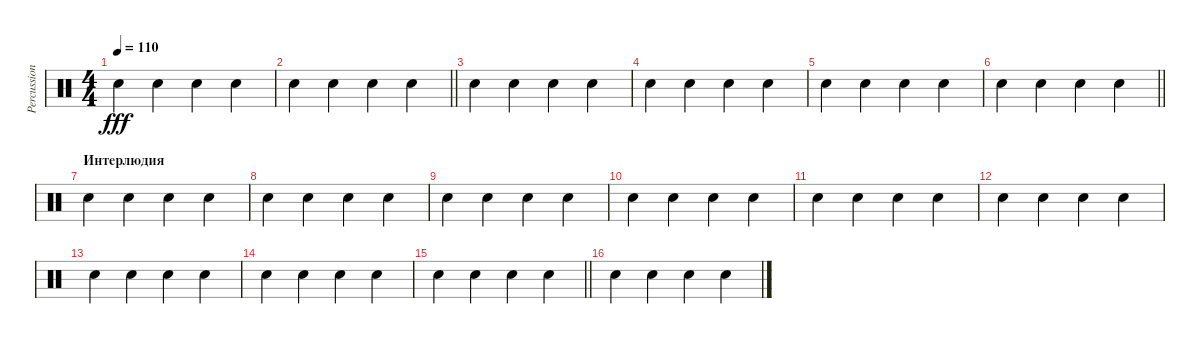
\track ("Percussion" "Percussion") {mute instrument percussion}
\staff {score}
\articulation defaults
\ts (4 4)
\tempo 110
\clef neutral
\ks c "Snare (hit) 2".4{dy fff} "Snare (hit) 2".4 "Snare (hit) 2".4 "Snare (hit) 2".4
|
\barLineRight lightlight "Snare (hit) 2".4 "Snare (hit) 2".4 "Snare (hit) 2".4 "Snare (hit) 2".4
|
"Snare (hit) 2".4 "Snare (hit) 2".4 "Snare (hit) 2".4 "Snare (hit) 2".4 |
"Snare (hit) 2".4 "Snare (hit) 2".4 "Snare (hit) 2".4 "Snare (hit) 2".4 |
"Snare (hit) 2".4 "Snare (hit) 2".4 "Snare (hit) 2".4 "Snare (hit) 2".4 |
\barLineRight lightlight "Snare (hit) 2".4 "Snare (hit) 2".4 "Snare (hit) 2".4 "Snare (hit) 2".4
|
\section ("" "Интерлюдия")
"Snare (hit) 2".4 "Snare (hit) 2".4 "Snare (hit) 2".4 "Snare (hit) 2".4 |
"Snare (hit) 2".4 "Snare (hit) 2".4 "Snare (hit) 2".4 "Snare (hit) 2".4 |
"Snare (hit) 2".4 "Snare (hit) 2".4 "Snare (hit) 2".4 "Snare (hit) 2".4 |
"Snare (hit) 2".4 "Snare (hit) 2".4 "Snare (hit) 2".4 "Snare (hit) 2".4 |
"Snare (hit) 2".4 "Snare (hit) 2".4 "Snare (hit) 2".4 "Snare (hit) 2".4 |
"Snare (hit) 2".4 "Snare (hit) 2".4 "Snare (hit) 2".4 "Snare (hit) 2".4 |
"Snare (hit) 2".4 "Snare (hit) 2".4 "Snare (hit) 2".4 "Snare (hit) 2".4 |
"Snare (hit) 2".4 "Snare (hit) 2".4 "Snare (hit) 2".4 "Snare (hit) 2".4 |
\barLineRight lightlight "Snare (hit) 2".4 "Snare (hit) 2".4 "Snare (hit) 2".4 "Snare (hit) 2".4
|
\section ("" "")
"Snare (hit) 2".4 "Snare (hit) 2".4 "Snare (hit) 2".4 "Snare (hit) 2".4
